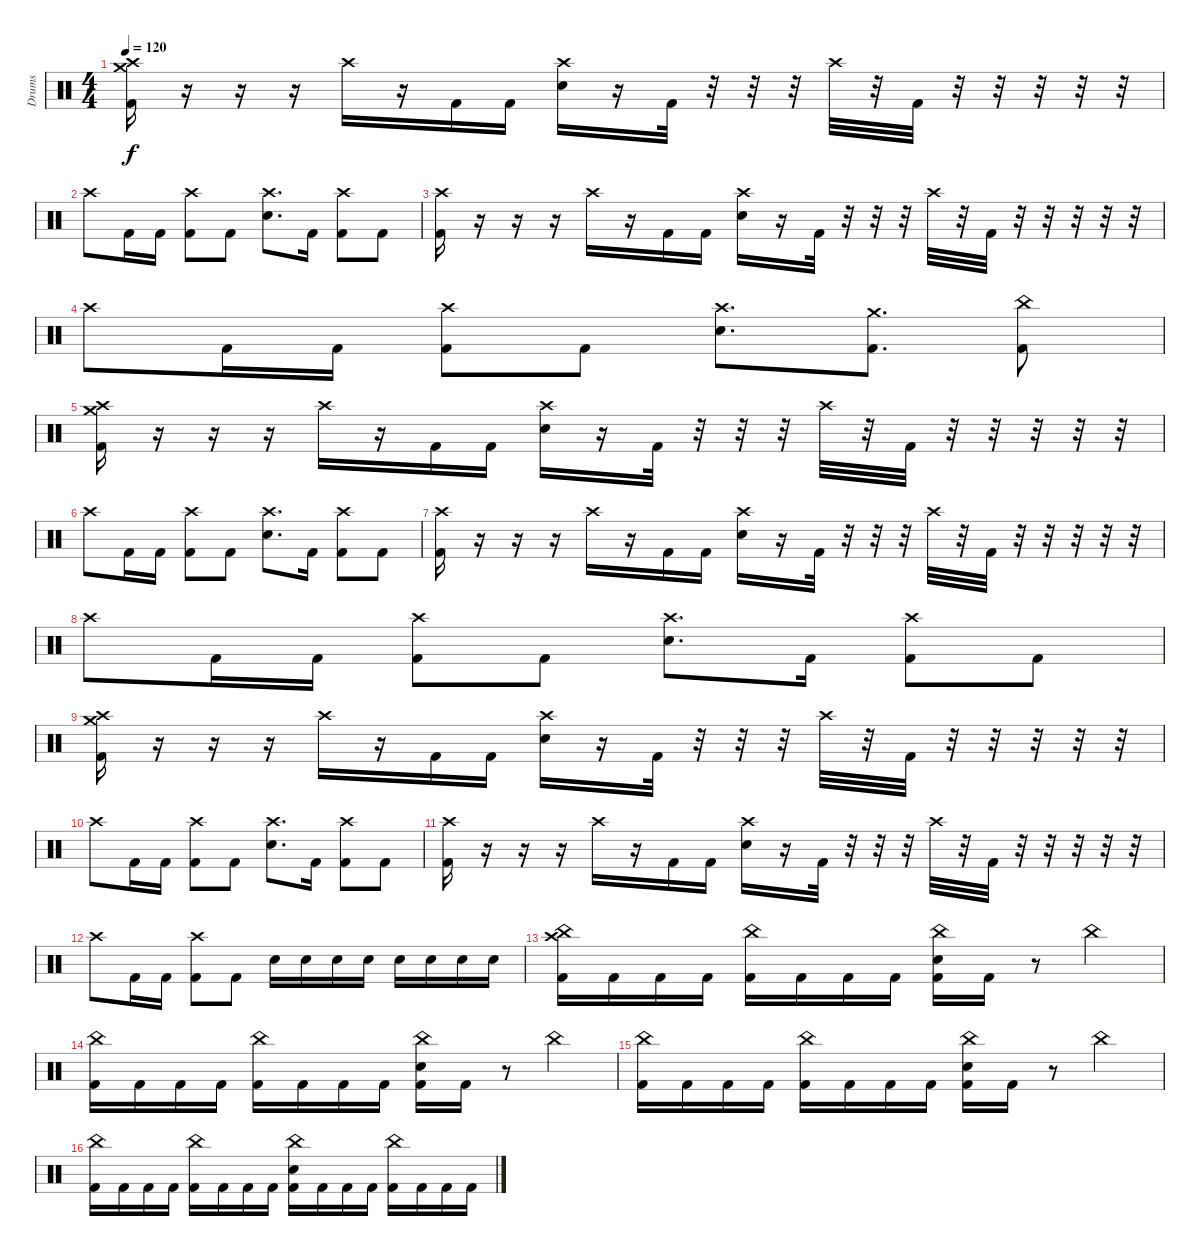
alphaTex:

\track ("Drums" "Drums") {instrument percussion}
\staff {score}
\articulation defaults
\ts (4 4)
\tempo 120
\clef neutral
\ks c
("Crash high (hit)" "Crash medium (hit)" "Kick (hit) 2").16{dy f} r.16 r.16 r.16 "Crash high (hit)".16 r.16 "Kick (hit) 2".16 "Kick (hit) 2".16 ("Crash high (hit)" "Electric Snare (hit)").16 r.16 "Kick (hit) 2".32 r.32 r.32 r.32 "Crash high (hit)".32 r.32 "Kick (hit) 2".32 r.32 r.32 r.32 r.32 r.32 |
"Crash high (hit)".8 "Kick (hit) 2".16 "Kick (hit) 2".16 ("Crash high (hit)" "Kick (hit) 2").8 "Kick (hit) 2".8 ("Crash high (hit)" "Electric Snare (hit)").8{d} "Kick (hit) 2".16 ("Crash high (hit)" "Kick (hit) 2").8 "Kick (hit) 2".8 |
("Crash high (hit)" "Kick (hit) 2").16 r.16 r.16 r.16 "Crash high (hit)".16 r.16 "Kick (hit) 2".16 "Kick (hit) 2".16 ("Crash high (hit)" "Electric Snare (hit)").16 r.16 "Kick (hit) 2".32 r.32 r.32 r.32 "Crash high (hit)".32 r.32 "Kick (hit) 2".32 r.32 r.32 r.32 r.32 r.32 |
"Crash high (hit)".8 "Kick (hit) 2".16 "Kick (hit) 2".16 ("Crash high (hit)" "Kick (hit) 2").8 "Kick (hit) 2".8 ("Crash high (hit)" "Electric Snare (hit)").8{d} ("Crash medium (hit)" "Kick (hit) 2").8{d} ("China (hit)" "Kick (hit) 2").8 |
("Crash high (hit)" "Crash medium (hit)" "Kick (hit) 2").16 r.16 r.16 r.16 "Crash high (hit)".16 r.16 "Kick (hit) 2".16 "Kick (hit) 2".16 ("Crash high (hit)" "Electric Snare (hit)").16 r.16 "Kick (hit) 2".32 r.32 r.32 r.32 "Crash high (hit)".32 r.32 "Kick (hit) 2".32 r.32 r.32 r.32 r.32 r.32 |
"Crash high (hit)".8 "Kick (hit) 2".16 "Kick (hit) 2".16 ("Crash high (hit)" "Kick (hit) 2").8 "Kick (hit) 2".8 ("Crash high (hit)" "Electric Snare (hit)").8{d} "Kick (hit) 2".16 ("Crash high (hit)" "Kick (hit) 2").8 "Kick (hit) 2".8 |
("Crash high (hit)" "Kick (hit) 2").16 r.16 r.16 r.16 "Crash high (hit)".16 r.16 "Kick (hit) 2".16 "Kick (hit) 2".16 ("Crash high (hit)" "Electric Snare (hit)").16 r.16 "Kick (hit) 2".32 r.32 r.32 r.32 "Crash high (hit)".32 r.32 "Kick (hit) 2".32 r.32 r.32 r.32 r.32 r.32 |
"Crash high (hit)".8 "Kick (hit) 2".16 "Kick (hit) 2".16 ("Crash high (hit)" "Kick (hit) 2").8 "Kick (hit) 2".8 ("Crash high (hit)" "Electric Snare (hit)").8{d} "Kick (hit) 2".16 ("Crash high (hit)" "Kick (hit) 2").8 "Kick (hit) 2".8 |
("Crash high (hit)" "Crash medium (hit)" "Kick (hit) 2").16 r.16 r.16 r.16 "Crash high (hit)".16 r.16 "Kick (hit) 2".16 "Kick (hit) 2".16 ("Crash high (hit)" "Electric Snare (hit)").16 r.16 "Kick (hit) 2".32 r.32 r.32 r.32 "Crash high (hit)".32 r.32 "Kick (hit) 2".32 r.32 r.32 r.32 r.32 r.32 |
"Crash high (hit)".8 "Kick (hit) 2".16 "Kick (hit) 2".16 ("Crash high (hit)" "Kick (hit) 2").8 "Kick (hit) 2".8 ("Crash high (hit)" "Electric Snare (hit)").8{d} "Kick (hit) 2".16 ("Crash high (hit)" "Kick (hit) 2").8 "Kick (hit) 2".8 |
("Crash high (hit)" "Kick (hit) 2").16 r.16 r.16 r.16 "Crash high (hit)".16 r.16 "Kick (hit) 2".16 "Kick (hit) 2".16 ("Crash high (hit)" "Electric Snare (hit)").16 r.16 "Kick (hit) 2".32 r.32 r.32 r.32 "Crash high (hit)".32 r.32 "Kick (hit) 2".32 r.32 r.32 r.32 r.32 r.32 |
"Crash high (hit)".8 "Kick (hit) 2".16 "Kick (hit) 2".16 ("Crash high (hit)" "Kick (hit) 2").8 "Kick (hit) 2".8 "Electric Snare (hit)".16 "Electric Snare (hit)".16 "Electric Snare (hit)".16 "Electric Snare (hit)".16 "Electric Snare (hit)".16 "Electric Snare (hit)".16 "Electric Snare (hit)".16 "Electric Snare (hit)".16 |
("China (hit)" "Crash high (hit)" "Kick (hit) 2").16 "Kick (hit) 2".16 "Kick (hit) 2".16 "Kick (hit) 2".16 ("China (hit)" "Kick (hit) 2").16 "Kick (hit) 2".16 "Kick (hit) 2".16 "Kick (hit) 2".16 ("China (hit)" "Electric Snare (hit)" "Kick (hit) 2").16 "Kick (hit) 2".16 r.8 "China (hit)".4 |
("China (hit)" "Kick (hit) 2").16 "Kick (hit) 2".16 "Kick (hit) 2".16 "Kick (hit) 2".16 ("China (hit)" "Kick (hit) 2").16 "Kick (hit) 2".16 "Kick (hit) 2".16 "Kick (hit) 2".16 ("China (hit)" "Electric Snare (hit)" "Kick (hit) 2").16 "Kick (hit) 2".16 r.8 "China (hit)".4 |
("China (hit)" "Kick (hit) 2").16 "Kick (hit) 2".16 "Kick (hit) 2".16 "Kick (hit) 2".16 ("China (hit)" "Kick (hit) 2").16 "Kick (hit) 2".16 "Kick (hit) 2".16 "Kick (hit) 2".16 ("China (hit)" "Electric Snare (hit)" "Kick (hit) 2").16 "Kick (hit) 2".16 r.8 "China (hit)".4 |
("China (hit)" "Kick (hit) 2").16 "Kick (hit) 2".16 "Kick (hit) 2".16 "Kick (hit) 2".16 ("China (hit)" "Kick (hit) 2").16 "Kick (hit) 2".16 "Kick (hit) 2".16 "Kick (hit) 2".16 ("China (hit)" "Electric Snare (hit)" "Kick (hit) 2").16 "Kick (hit) 2".16 "Kick (hit) 2".16 "Kick (hit) 2".16 ("China (hit)" "Kick (hit) 2").16 "Kick (hit) 2".16 "Kick (hit) 2".16 "Kick (hit) 2".16
